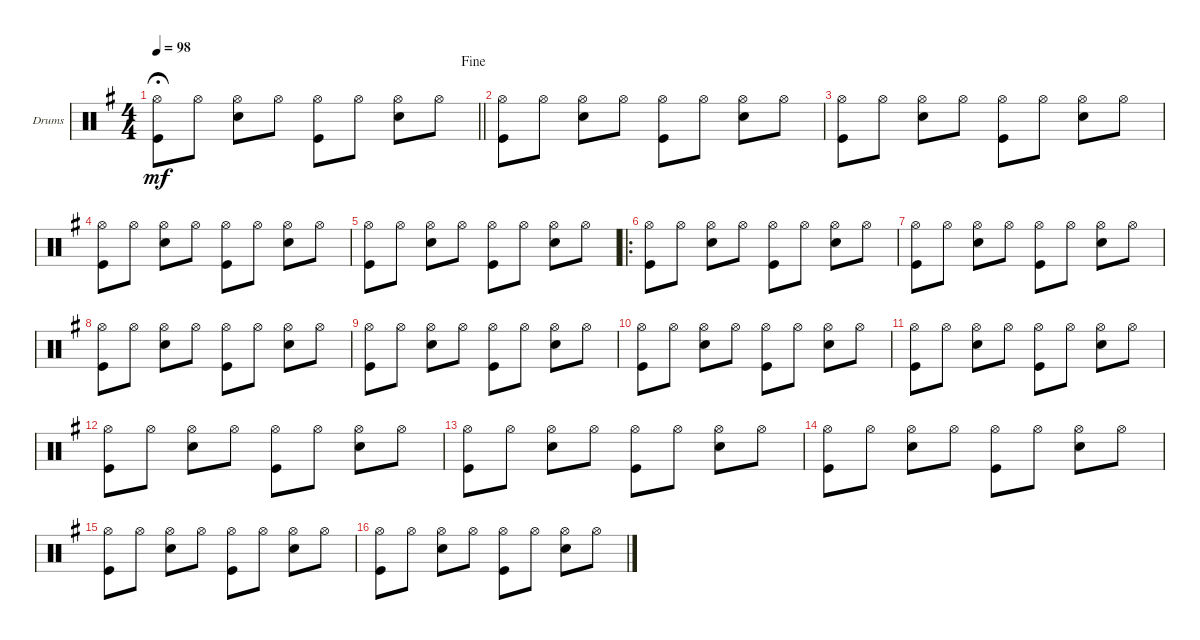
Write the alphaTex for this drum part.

\bracketExtendMode groupsimilarinstruments
\multiBarRest
\firstSystemTrackNameOrientation horizontal
\otherSystemsTrackNameOrientation horizontal
\track ("Drumkit" "Drums") {instrument percussion}
\staff {score}
\articulation defaults
\ts (4 4)
\scale
0.235955
\jump fine
\tempo 98
\accidentals auto
\clef neutral
\ottava regular
\simile none
\barLineRight lightlight
\ks g
("Kick (hit)" "Hi-Hat (open)").8{dy mf fermata (medium 0.5)} "Hi-Hat (open)".8 ("Hi-Hat (open)" "Snare (hit) 2").8 "Hi-Hat (open)".8 ("Kick (hit)" "Hi-Hat (open)").8 "Hi-Hat (open)".8 ("Hi-Hat (open)" "Snare (hit) 2").8 "Hi-Hat (open)".8 |
\scale
0.52809 ("Kick (hit)" "Hi-Hat (open)").8 "Hi-Hat (open)".8 ("Hi-Hat (open)" "Snare (hit) 2").8 "Hi-Hat (open)".8 ("Kick (hit)" "Hi-Hat (open)").8 "Hi-Hat (open)".8 ("Hi-Hat (open)" "Snare (hit) 2").8 "Hi-Hat (open)".8 |
\scale
0.358779 ("Kick (hit)" "Hi-Hat (open)").8 "Hi-Hat (open)".8 ("Hi-Hat (open)" "Snare (hit) 2").8 "Hi-Hat (open)".8 ("Kick (hit)" "Hi-Hat (open)").8 "Hi-Hat (open)".8 ("Hi-Hat (open)" "Snare (hit) 2").8 "Hi-Hat (open)".8 |
\scale
0.251908 ("Kick (hit)" "Hi-Hat (open)").8 "Hi-Hat (open)".8 ("Hi-Hat (open)" "Snare (hit) 2").8 "Hi-Hat (open)".8 ("Kick (hit)" "Hi-Hat (open)").8 "Hi-Hat (open)".8 ("Hi-Hat (open)" "Snare (hit) 2").8 "Hi-Hat (open)".8 |
\scale
0.389313 ("Kick (hit)" "Hi-Hat (open)").8 "Hi-Hat (open)".8 ("Hi-Hat (open)" "Snare (hit) 2").8 "Hi-Hat (open)".8 ("Kick (hit)" "Hi-Hat (open)").8 "Hi-Hat (open)".8 ("Hi-Hat (open)" "Snare (hit) 2").8 "Hi-Hat (open)".8 |
\ro
\scale
0.263158 ("Kick (hit)" "Hi-Hat (open)").8 "Hi-Hat (open)".8 ("Hi-Hat (open)" "Snare (hit) 2").8 "Hi-Hat (open)".8 ("Kick (hit)" "Hi-Hat (open)").8 "Hi-Hat (open)".8 ("Hi-Hat (open)" "Snare (hit) 2").8 "Hi-Hat (open)".8 |
\scale
0.245614 ("Kick (hit)" "Hi-Hat (open)").8 "Hi-Hat (open)".8 ("Hi-Hat (open)" "Snare (hit) 2").8 "Hi-Hat (open)".8 ("Kick (hit)" "Hi-Hat (open)").8 "Hi-Hat (open)".8 ("Hi-Hat (open)" "Snare (hit) 2").8 "Hi-Hat (open)".8 |
\scale
0.245614 ("Kick (hit)" "Hi-Hat (open)").8 "Hi-Hat (open)".8 ("Hi-Hat (open)" "Snare (hit) 2").8 "Hi-Hat (open)".8 ("Kick (hit)" "Hi-Hat (open)").8 "Hi-Hat (open)".8 ("Hi-Hat (open)" "Snare (hit) 2").8 "Hi-Hat (open)".8 |
\scale
0.245614 ("Kick (hit)" "Hi-Hat (open)").8 "Hi-Hat (open)".8 ("Hi-Hat (open)" "Snare (hit) 2").8 "Hi-Hat (open)".8 ("Kick (hit)" "Hi-Hat (open)").8 "Hi-Hat (open)".8 ("Hi-Hat (open)" "Snare (hit) 2").8 "Hi-Hat (open)".8 |
\scale
0.333333 ("Kick (hit)" "Hi-Hat (open)").8 "Hi-Hat (open)".8 ("Hi-Hat (open)" "Snare (hit) 2").8 "Hi-Hat (open)".8 ("Kick (hit)" "Hi-Hat (open)").8 "Hi-Hat (open)".8 ("Hi-Hat (open)" "Snare (hit) 2").8 "Hi-Hat (open)".8 |
\scale
0.333333 ("Kick (hit)" "Hi-Hat (open)").8 "Hi-Hat (open)".8 ("Hi-Hat (open)" "Snare (hit) 2").8 "Hi-Hat (open)".8 ("Kick (hit)" "Hi-Hat (open)").8 "Hi-Hat (open)".8 ("Hi-Hat (open)" "Snare (hit) 2").8 "Hi-Hat (open)".8 |
\scale
0.333333 ("Kick (hit)" "Hi-Hat (open)").8 "Hi-Hat (open)".8 ("Hi-Hat (open)" "Snare (hit) 2").8 "Hi-Hat (open)".8 ("Kick (hit)" "Hi-Hat (open)").8 "Hi-Hat (open)".8 ("Hi-Hat (open)" "Snare (hit) 2").8 "Hi-Hat (open)".8 |
\scale
0.333333 ("Kick (hit)" "Hi-Hat (open)").8 "Hi-Hat (open)".8 ("Hi-Hat (open)" "Snare (hit) 2").8 "Hi-Hat (open)".8 ("Kick (hit)" "Hi-Hat (open)").8 "Hi-Hat (open)".8 ("Hi-Hat (open)" "Snare (hit) 2").8 "Hi-Hat (open)".8 |
\scale
0.333333 ("Kick (hit)" "Hi-Hat (open)").8 "Hi-Hat (open)".8 ("Hi-Hat (open)" "Snare (hit) 2").8 "Hi-Hat (open)".8 ("Kick (hit)" "Hi-Hat (open)").8 "Hi-Hat (open)".8 ("Hi-Hat (open)" "Snare (hit) 2").8 "Hi-Hat (open)".8 |
\scale
0.333333 ("Kick (hit)" "Hi-Hat (open)").8 "Hi-Hat (open)".8 ("Hi-Hat (open)" "Snare (hit) 2").8 "Hi-Hat (open)".8 ("Kick (hit)" "Hi-Hat (open)").8 "Hi-Hat (open)".8 ("Hi-Hat (open)" "Snare (hit) 2").8 "Hi-Hat (open)".8 |
\scale
0.284746 ("Kick (hit)" "Hi-Hat (open)").8 "Hi-Hat (open)".8 ("Hi-Hat (open)" "Snare (hit) 2").8 "Hi-Hat (open)".8 ("Kick (hit)" "Hi-Hat (open)").8 "Hi-Hat (open)".8 ("Hi-Hat (open)" "Snare (hit) 2").8 "Hi-Hat (open)".8
